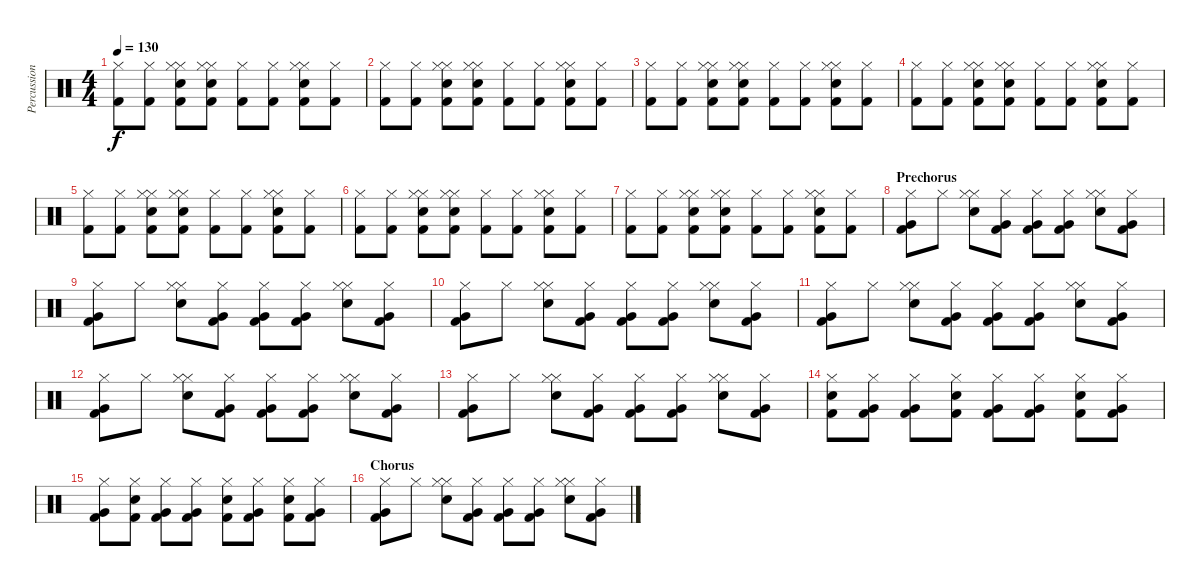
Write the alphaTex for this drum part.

\track ("Percussion" "Percussion") {instrument percussion}
\staff {score}
\articulation defaults
\ts (4 4)
\tempo 130
\clef neutral
\ks c
("Hi-Hat (closed)" "Kick (hit) 2").8{dy f} ("Hi-Hat (closed)" "Kick (hit) 2").8 ("Hi-Hat (closed)" "Hi-Hat (closed)" "Snare (hit) 2" "Kick (hit) 2").8 ("Hi-Hat (closed)" "Hi-Hat (closed)" "Snare (hit) 2" "Kick (hit) 2").8 ("Hi-Hat (closed)" "Kick (hit) 2").8 ("Hi-Hat (closed)" "Kick (hit) 2").8 ("Hi-Hat (closed)" "Hi-Hat (closed)" "Snare (hit) 2" "Kick (hit) 2").8 ("Hi-Hat (closed)" "Kick (hit) 2").8 |
("Hi-Hat (closed)" "Kick (hit) 2").8 ("Hi-Hat (closed)" "Kick (hit) 2").8 ("Hi-Hat (closed)" "Hi-Hat (closed)" "Snare (hit) 2" "Kick (hit) 2").8 ("Hi-Hat (closed)" "Hi-Hat (closed)" "Snare (hit) 2" "Kick (hit) 2").8 ("Hi-Hat (closed)" "Kick (hit) 2").8 ("Hi-Hat (closed)" "Kick (hit) 2").8 ("Hi-Hat (closed)" "Hi-Hat (closed)" "Snare (hit) 2" "Kick (hit) 2").8 ("Hi-Hat (closed)" "Kick (hit) 2").8 |
("Hi-Hat (closed)" "Kick (hit) 2").8 ("Hi-Hat (closed)" "Kick (hit) 2").8 ("Hi-Hat (closed)" "Hi-Hat (closed)" "Snare (hit) 2" "Kick (hit) 2").8 ("Hi-Hat (closed)" "Hi-Hat (closed)" "Snare (hit) 2" "Kick (hit) 2").8 ("Hi-Hat (closed)" "Kick (hit) 2").8 ("Hi-Hat (closed)" "Kick (hit) 2").8 ("Hi-Hat (closed)" "Hi-Hat (closed)" "Snare (hit) 2" "Kick (hit) 2").8 ("Hi-Hat (closed)" "Kick (hit) 2").8 |
("Hi-Hat (closed)" "Kick (hit) 2").8 ("Hi-Hat (closed)" "Kick (hit) 2").8 ("Hi-Hat (closed)" "Hi-Hat (closed)" "Snare (hit) 2" "Kick (hit) 2").8 ("Hi-Hat (closed)" "Hi-Hat (closed)" "Snare (hit) 2" "Kick (hit) 2").8 ("Hi-Hat (closed)" "Kick (hit) 2").8 ("Hi-Hat (closed)" "Kick (hit) 2").8 ("Hi-Hat (closed)" "Hi-Hat (closed)" "Snare (hit) 2" "Kick (hit) 2").8 ("Hi-Hat (closed)" "Kick (hit) 2").8 |
("Hi-Hat (closed)" "Kick (hit) 2").8 ("Hi-Hat (closed)" "Kick (hit) 2").8 ("Hi-Hat (closed)" "Hi-Hat (closed)" "Snare (hit) 2" "Kick (hit) 2").8 ("Hi-Hat (closed)" "Hi-Hat (closed)" "Snare (hit) 2" "Kick (hit) 2").8 ("Hi-Hat (closed)" "Kick (hit) 2").8 ("Hi-Hat (closed)" "Kick (hit) 2").8 ("Hi-Hat (closed)" "Hi-Hat (closed)" "Snare (hit) 2" "Kick (hit) 2").8 ("Hi-Hat (closed)" "Kick (hit) 2").8 |
("Hi-Hat (closed)" "Kick (hit) 2").8 ("Hi-Hat (closed)" "Kick (hit) 2").8 ("Hi-Hat (closed)" "Hi-Hat (closed)" "Snare (hit) 2" "Kick (hit) 2").8 ("Hi-Hat (closed)" "Hi-Hat (closed)" "Snare (hit) 2" "Kick (hit) 2").8 ("Hi-Hat (closed)" "Kick (hit) 2").8 ("Hi-Hat (closed)" "Kick (hit) 2").8 ("Hi-Hat (closed)" "Hi-Hat (closed)" "Snare (hit) 2" "Kick (hit) 2").8 ("Hi-Hat (closed)" "Kick (hit) 2").8 |
("Hi-Hat (closed)" "Kick (hit) 2").8 ("Hi-Hat (closed)" "Kick (hit) 2").8 ("Hi-Hat (closed)" "Hi-Hat (closed)" "Snare (hit) 2" "Kick (hit) 2").8 ("Hi-Hat (closed)" "Hi-Hat (closed)" "Snare (hit) 2" "Kick (hit) 2").8 ("Hi-Hat (closed)" "Kick (hit) 2").8 ("Hi-Hat (closed)" "Kick (hit) 2").8 ("Hi-Hat (closed)" "Hi-Hat (closed)" "Snare (hit) 2" "Kick (hit) 2").8 ("Hi-Hat (closed)" "Kick (hit) 2").8 |
\section ("" "Prechorus")
("Hi-Hat (closed)" "Very Low Tom (hit)" "Kick (hit) 2").8 "Hi-Hat (closed)".8 ("Hi-Hat (closed)" "Hi-Hat (closed)" "Snare (hit) 2").8 ("Hi-Hat (closed)" "Very Low Tom (hit)" "Kick (hit) 2").8 ("Hi-Hat (closed)" "Very Low Tom (hit)" "Kick (hit) 2").8 ("Hi-Hat (closed)" "Very Low Tom (hit)" "Kick (hit) 2").8 ("Hi-Hat (closed)" "Hi-Hat (closed)" "Snare (hit) 2").8 ("Hi-Hat (closed)" "Very Low Tom (hit)" "Kick (hit) 2").8 |
("Hi-Hat (closed)" "Very Low Tom (hit)" "Kick (hit) 2").8 "Hi-Hat (closed)".8 ("Hi-Hat (closed)" "Hi-Hat (closed)" "Snare (hit) 2").8 ("Hi-Hat (closed)" "Very Low Tom (hit)" "Kick (hit) 2").8 ("Hi-Hat (closed)" "Very Low Tom (hit)" "Kick (hit) 2").8 ("Hi-Hat (closed)" "Very Low Tom (hit)" "Kick (hit) 2").8 ("Hi-Hat (closed)" "Hi-Hat (closed)" "Snare (hit) 2").8 ("Hi-Hat (closed)" "Very Low Tom (hit)" "Kick (hit) 2").8 |
("Hi-Hat (closed)" "Very Low Tom (hit)" "Kick (hit) 2").8 "Hi-Hat (closed)".8 ("Hi-Hat (closed)" "Hi-Hat (closed)" "Snare (hit) 2").8 ("Hi-Hat (closed)" "Very Low Tom (hit)" "Kick (hit) 2").8 ("Hi-Hat (closed)" "Very Low Tom (hit)" "Kick (hit) 2").8 ("Hi-Hat (closed)" "Very Low Tom (hit)" "Kick (hit) 2").8 ("Hi-Hat (closed)" "Hi-Hat (closed)" "Snare (hit) 2").8 ("Hi-Hat (closed)" "Very Low Tom (hit)" "Kick (hit) 2").8 |
("Hi-Hat (closed)" "Very Low Tom (hit)" "Kick (hit) 2").8 "Hi-Hat (closed)".8 ("Hi-Hat (closed)" "Hi-Hat (closed)" "Snare (hit) 2").8 ("Hi-Hat (closed)" "Very Low Tom (hit)" "Kick (hit) 2").8 ("Hi-Hat (closed)" "Very Low Tom (hit)" "Kick (hit) 2").8 ("Hi-Hat (closed)" "Very Low Tom (hit)" "Kick (hit) 2").8 ("Hi-Hat (closed)" "Hi-Hat (closed)" "Snare (hit) 2").8 ("Hi-Hat (closed)" "Very Low Tom (hit)" "Kick (hit) 2").8 |
("Hi-Hat (closed)" "Very Low Tom (hit)" "Kick (hit) 2").8 "Hi-Hat (closed)".8 ("Hi-Hat (closed)" "Hi-Hat (closed)" "Snare (hit) 2").8 ("Hi-Hat (closed)" "Very Low Tom (hit)" "Kick (hit) 2").8 ("Hi-Hat (closed)" "Very Low Tom (hit)" "Kick (hit) 2").8 ("Hi-Hat (closed)" "Very Low Tom (hit)" "Kick (hit) 2").8 ("Hi-Hat (closed)" "Hi-Hat (closed)" "Snare (hit) 2").8 ("Hi-Hat (closed)" "Very Low Tom (hit)" "Kick (hit) 2").8 |
("Hi-Hat (closed)" "Very Low Tom (hit)" "Kick (hit) 2").8 "Hi-Hat (closed)".8 ("Hi-Hat (closed)" "Hi-Hat (closed)" "Snare (hit) 2").8 ("Hi-Hat (closed)" "Very Low Tom (hit)" "Kick (hit) 2").8 ("Hi-Hat (closed)" "Very Low Tom (hit)" "Kick (hit) 2").8 ("Hi-Hat (closed)" "Very Low Tom (hit)" "Kick (hit) 2").8 ("Hi-Hat (closed)" "Hi-Hat (closed)" "Snare (hit) 2").8 ("Hi-Hat (closed)" "Very Low Tom (hit)" "Kick (hit) 2").8 |
("Hi-Hat (closed)" "Snare (hit) 2" "Kick (hit) 2").8 ("Hi-Hat (closed)" "Very Low Tom (hit)" "Kick (hit) 2").8 ("Hi-Hat (closed)" "Very Low Tom (hit)" "Kick (hit) 2").8 ("Hi-Hat (closed)" "Snare (hit) 2" "Kick (hit) 2").8 ("Hi-Hat (closed)" "Very Low Tom (hit)" "Kick (hit) 2").8 ("Hi-Hat (closed)" "Very Low Tom (hit)" "Kick (hit) 2").8 ("Hi-Hat (closed)" "Snare (hit) 2" "Kick (hit) 2").8 ("Hi-Hat (closed)" "Very Low Tom (hit)" "Kick (hit) 2").8 |
("Hi-Hat (closed)" "Very Low Tom (hit)" "Kick (hit) 2").8 ("Hi-Hat (closed)" "Snare (hit) 2" "Kick (hit) 2").8 ("Hi-Hat (closed)" "Very Low Tom (hit)" "Kick (hit) 2").8 ("Hi-Hat (closed)" "Very Low Tom (hit)" "Kick (hit) 2").8 ("Hi-Hat (closed)" "Snare (hit) 2" "Kick (hit) 2").8 ("Hi-Hat (closed)" "Very Low Tom (hit)" "Kick (hit) 2").8 ("Hi-Hat (closed)" "Snare (hit) 2" "Kick (hit) 2").8 ("Hi-Hat (closed)" "Very Low Tom (hit)" "Kick (hit) 2").8 |
\section ("" "Chorus")
("Hi-Hat (closed)" "Very Low Tom (hit)" "Kick (hit) 2").8 "Hi-Hat (closed)".8 ("Hi-Hat (closed)" "Hi-Hat (closed)" "Snare (hit) 2").8 ("Hi-Hat (closed)" "Very Low Tom (hit)" "Kick (hit) 2").8 ("Hi-Hat (closed)" "Very Low Tom (hit)" "Kick (hit) 2").8 ("Hi-Hat (closed)" "Very Low Tom (hit)" "Kick (hit) 2").8 ("Hi-Hat (closed)" "Hi-Hat (closed)" "Snare (hit) 2").8 ("Hi-Hat (closed)" "Very Low Tom (hit)" "Kick (hit) 2").8
